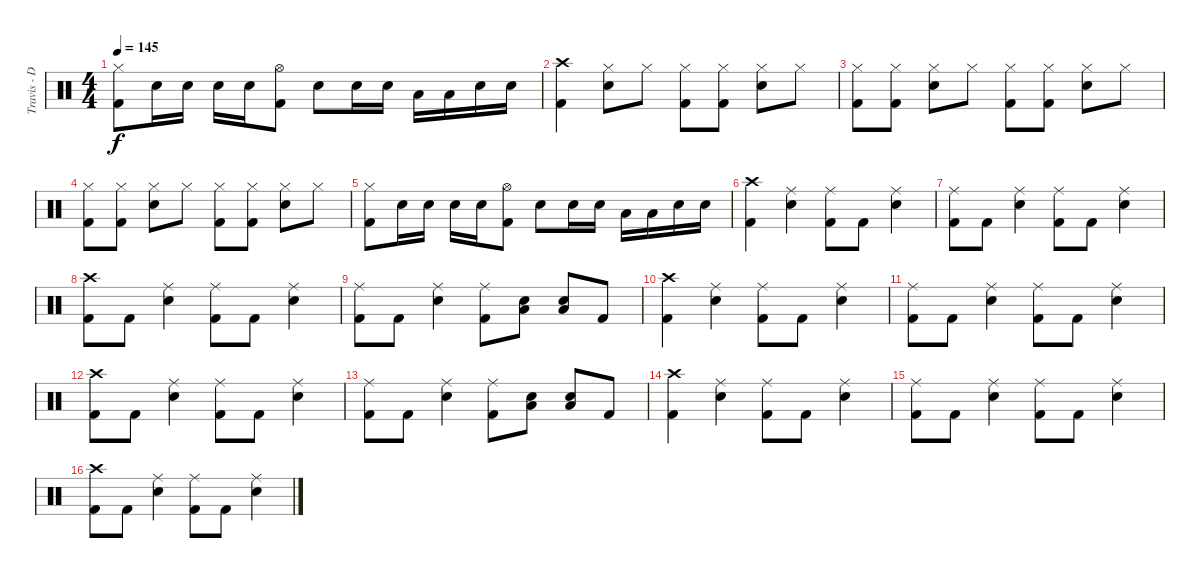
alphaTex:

\track ("Travis - Drums" "Travis - D") {instrument percussion}
\staff {score}
\articulation defaults
\ts (4 4)
\tempo 145
\clef neutral
\ks c
("Hi-Hat (closed)" "Kick (hit) 2").8{dy f} "Snare (hit) 2".16 "Snare (hit) 2".16 "Snare (hit) 2".16 "Snare (hit) 2".16 ("Hi-Hat (open)" "Kick (hit) 2").8 "Snare (hit) 2".8 "Snare (hit) 2".16 "Snare (hit) 2".16 "Low Tom (hit)".16 "Low Tom (hit)".16 "Snare (hit) 2".16 "Snare (hit) 2".16 |
("Crash high (hit)" "Kick (hit) 2").4 ("Hi-Hat (closed)" "Snare (hit) 2").8 "Hi-Hat (closed)".8 ("Hi-Hat (closed)" "Kick (hit) 2").8 ("Hi-Hat (closed)" "Kick (hit) 2").8 ("Hi-Hat (closed)" "Snare (hit) 2").8 "Hi-Hat (closed)".8 |
("Hi-Hat (closed)" "Kick (hit) 2").8 ("Hi-Hat (closed)" "Kick (hit) 2").8 ("Hi-Hat (closed)" "Snare (hit) 2").8 "Hi-Hat (closed)".8 ("Hi-Hat (closed)" "Kick (hit) 2").8 ("Hi-Hat (closed)" "Kick (hit) 2").8 ("Hi-Hat (closed)" "Snare (hit) 2").8 "Hi-Hat (closed)".8 |
("Hi-Hat (closed)" "Kick (hit) 2").8 ("Hi-Hat (closed)" "Kick (hit) 2").8 ("Hi-Hat (closed)" "Snare (hit) 2").8 "Hi-Hat (closed)".8 ("Hi-Hat (closed)" "Kick (hit) 2").8 ("Hi-Hat (closed)" "Kick (hit) 2").8 ("Hi-Hat (closed)" "Snare (hit) 2").8 "Hi-Hat (closed)".8 |
("Hi-Hat (closed)" "Kick (hit) 2").8 "Snare (hit) 2".16 "Snare (hit) 2".16 "Snare (hit) 2".16 "Snare (hit) 2".16 ("Hi-Hat (open)" "Kick (hit) 2").8 "Snare (hit) 2".8 "Snare (hit) 2".16 "Snare (hit) 2".16 "Low Tom (hit)".16 "Low Tom (hit)".16 "Snare (hit) 2".16 "Snare (hit) 2".16 |
("Crash high (hit)" "Kick (hit) 2").4 ("Ride (middle)" "Snare (hit) 2").4 ("Ride (middle)" "Kick (hit) 2").8 "Kick (hit) 2".8 ("Ride (middle)" "Snare (hit) 2").4 |
("Ride (middle)" "Kick (hit) 2").8 "Kick (hit) 2".8 ("Ride (middle)" "Snare (hit) 2").4 ("Ride (middle)" "Kick (hit) 2").8 "Kick (hit) 2".8 ("Ride (middle)" "Snare (hit) 2").4 |
("Crash high (hit)" "Kick (hit) 2").8 "Kick (hit) 2".8 ("Ride (middle)" "Snare (hit) 2").4 ("Ride (middle)" "Kick (hit) 2").8 "Kick (hit) 2".8 ("Ride (middle)" "Snare (hit) 2").4 |
("Ride (middle)" "Kick (hit) 2").8 "Kick (hit) 2".8 ("Ride (middle)" "Snare (hit) 2").4 ("Ride (middle)" "Kick (hit) 2").8 ("Snare (hit) 2" "Low Floor Tom (hit)").8 ("Snare (hit) 2" "Low Floor Tom (hit)").8 "Kick (hit) 2".8 |
("Crash high (hit)" "Kick (hit) 2").4 ("Ride (middle)" "Snare (hit) 2").4 ("Ride (middle)" "Kick (hit) 2").8 "Kick (hit) 2".8 ("Ride (middle)" "Snare (hit) 2").4 |
("Ride (middle)" "Kick (hit) 2").8 "Kick (hit) 2".8 ("Ride (middle)" "Snare (hit) 2").4 ("Ride (middle)" "Kick (hit) 2").8 "Kick (hit) 2".8 ("Ride (middle)" "Snare (hit) 2").4 |
("Crash high (hit)" "Kick (hit) 2").8 "Kick (hit) 2".8 ("Ride (middle)" "Snare (hit) 2").4 ("Ride (middle)" "Kick (hit) 2").8 "Kick (hit) 2".8 ("Ride (middle)" "Snare (hit) 2").4 |
("Ride (middle)" "Kick (hit) 2").8 "Kick (hit) 2".8 ("Ride (middle)" "Snare (hit) 2").4 ("Ride (middle)" "Kick (hit) 2").8 ("Snare (hit) 2" "Low Floor Tom (hit)").8 ("Snare (hit) 2" "Low Floor Tom (hit)").8 "Kick (hit) 2".8 |
("Crash high (hit)" "Kick (hit) 2").4 ("Ride (middle)" "Snare (hit) 2").4 ("Ride (middle)" "Kick (hit) 2").8 "Kick (hit) 2".8 ("Ride (middle)" "Snare (hit) 2").4 |
("Ride (middle)" "Kick (hit) 2").8 "Kick (hit) 2".8 ("Ride (middle)" "Snare (hit) 2").4 ("Ride (middle)" "Kick (hit) 2").8 "Kick (hit) 2".8 ("Ride (middle)" "Snare (hit) 2").4 |
("Crash high (hit)" "Kick (hit) 2").8 "Kick (hit) 2".8 ("Ride (middle)" "Snare (hit) 2").4 ("Ride (middle)" "Kick (hit) 2").8 "Kick (hit) 2".8 ("Ride (middle)" "Snare (hit) 2").4
